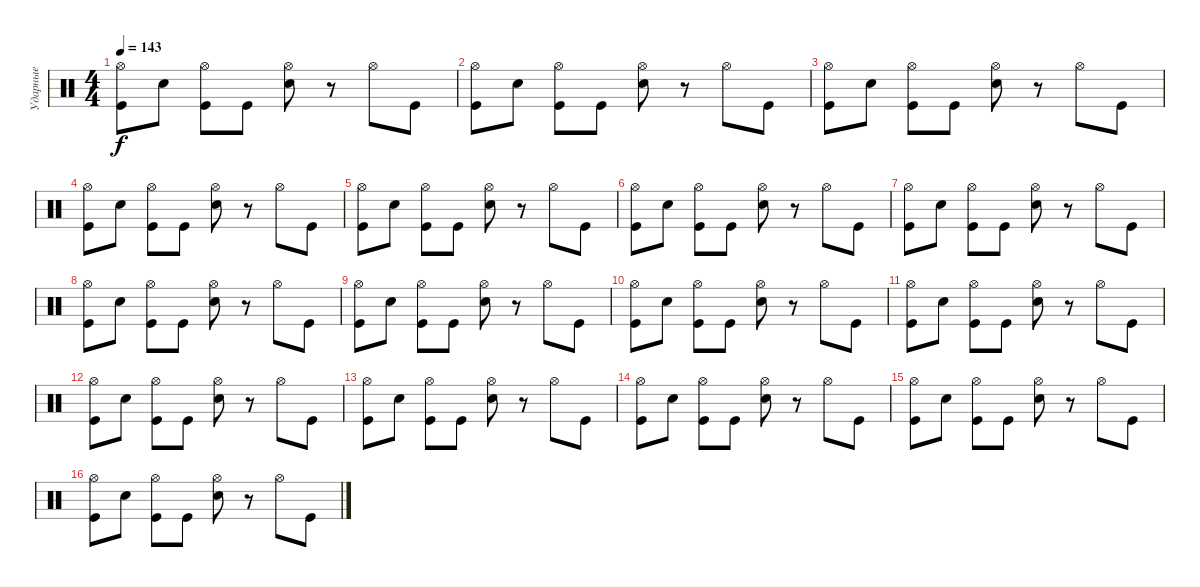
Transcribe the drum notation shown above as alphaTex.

\track ("Ударные" "Ударные") {instrument percussion}
\staff {score}
\articulation defaults
\ts (4 4)
\tempo 143
\clef neutral
\ks c
("Hi-Hat (open)" "Kick (hit)").8{dy f} "Electric Snare (hit)".8 ("Hi-Hat (open)" "Kick (hit)").8 "Kick (hit)".8 ("Hi-Hat (open)" "Electric Snare (hit)").8 r.8 "Hi-Hat (open)".8 "Kick (hit)".8 |
("Hi-Hat (open)" "Kick (hit)").8 "Electric Snare (hit)".8 ("Hi-Hat (open)" "Kick (hit)").8 "Kick (hit)".8 ("Hi-Hat (open)" "Electric Snare (hit)").8 r.8 "Hi-Hat (open)".8 "Kick (hit)".8 |
("Hi-Hat (open)" "Kick (hit)").8 "Electric Snare (hit)".8 ("Hi-Hat (open)" "Kick (hit)").8 "Kick (hit)".8 ("Hi-Hat (open)" "Electric Snare (hit)").8 r.8 "Hi-Hat (open)".8 "Kick (hit)".8 |
("Hi-Hat (open)" "Kick (hit)").8 "Electric Snare (hit)".8 ("Hi-Hat (open)" "Kick (hit)").8 "Kick (hit)".8 ("Hi-Hat (open)" "Electric Snare (hit)").8 r.8 "Hi-Hat (open)".8 "Kick (hit)".8 |
("Hi-Hat (open)" "Kick (hit)").8 "Electric Snare (hit)".8 ("Hi-Hat (open)" "Kick (hit)").8 "Kick (hit)".8 ("Hi-Hat (open)" "Electric Snare (hit)").8 r.8 "Hi-Hat (open)".8 "Kick (hit)".8 |
("Hi-Hat (open)" "Kick (hit)").8 "Electric Snare (hit)".8 ("Hi-Hat (open)" "Kick (hit)").8 "Kick (hit)".8 ("Hi-Hat (open)" "Electric Snare (hit)").8 r.8 "Hi-Hat (open)".8 "Kick (hit)".8 |
("Hi-Hat (open)" "Kick (hit)").8 "Electric Snare (hit)".8 ("Hi-Hat (open)" "Kick (hit)").8 "Kick (hit)".8 ("Hi-Hat (open)" "Electric Snare (hit)").8 r.8 "Hi-Hat (open)".8 "Kick (hit)".8 |
("Hi-Hat (open)" "Kick (hit)").8 "Electric Snare (hit)".8 ("Hi-Hat (open)" "Kick (hit)").8 "Kick (hit)".8 ("Hi-Hat (open)" "Electric Snare (hit)").8 r.8 "Hi-Hat (open)".8 "Kick (hit)".8 |
("Hi-Hat (open)" "Kick (hit)").8 "Electric Snare (hit)".8 ("Hi-Hat (open)" "Kick (hit)").8 "Kick (hit)".8 ("Hi-Hat (open)" "Electric Snare (hit)").8 r.8 "Hi-Hat (open)".8 "Kick (hit)".8 |
("Hi-Hat (open)" "Kick (hit)").8 "Electric Snare (hit)".8 ("Hi-Hat (open)" "Kick (hit)").8 "Kick (hit)".8 ("Hi-Hat (open)" "Electric Snare (hit)").8 r.8 "Hi-Hat (open)".8 "Kick (hit)".8 |
("Hi-Hat (open)" "Kick (hit)").8 "Electric Snare (hit)".8 ("Hi-Hat (open)" "Kick (hit)").8 "Kick (hit)".8 ("Hi-Hat (open)" "Electric Snare (hit)").8 r.8 "Hi-Hat (open)".8 "Kick (hit)".8 |
("Hi-Hat (open)" "Kick (hit)").8 "Electric Snare (hit)".8 ("Hi-Hat (open)" "Kick (hit)").8 "Kick (hit)".8 ("Hi-Hat (open)" "Electric Snare (hit)").8 r.8 "Hi-Hat (open)".8 "Kick (hit)".8 |
("Hi-Hat (open)" "Kick (hit)").8 "Electric Snare (hit)".8 ("Hi-Hat (open)" "Kick (hit)").8 "Kick (hit)".8 ("Hi-Hat (open)" "Electric Snare (hit)").8 r.8 "Hi-Hat (open)".8 "Kick (hit)".8 |
("Hi-Hat (open)" "Kick (hit)").8 "Electric Snare (hit)".8 ("Hi-Hat (open)" "Kick (hit)").8 "Kick (hit)".8 ("Hi-Hat (open)" "Electric Snare (hit)").8 r.8 "Hi-Hat (open)".8 "Kick (hit)".8 |
("Hi-Hat (open)" "Kick (hit)").8 "Electric Snare (hit)".8 ("Hi-Hat (open)" "Kick (hit)").8 "Kick (hit)".8 ("Hi-Hat (open)" "Electric Snare (hit)").8 r.8 "Hi-Hat (open)".8 "Kick (hit)".8 |
("Hi-Hat (open)" "Kick (hit)").8 "Electric Snare (hit)".8 ("Hi-Hat (open)" "Kick (hit)").8 "Kick (hit)".8 ("Hi-Hat (open)" "Electric Snare (hit)").8 r.8 "Hi-Hat (open)".8 "Kick (hit)".8
